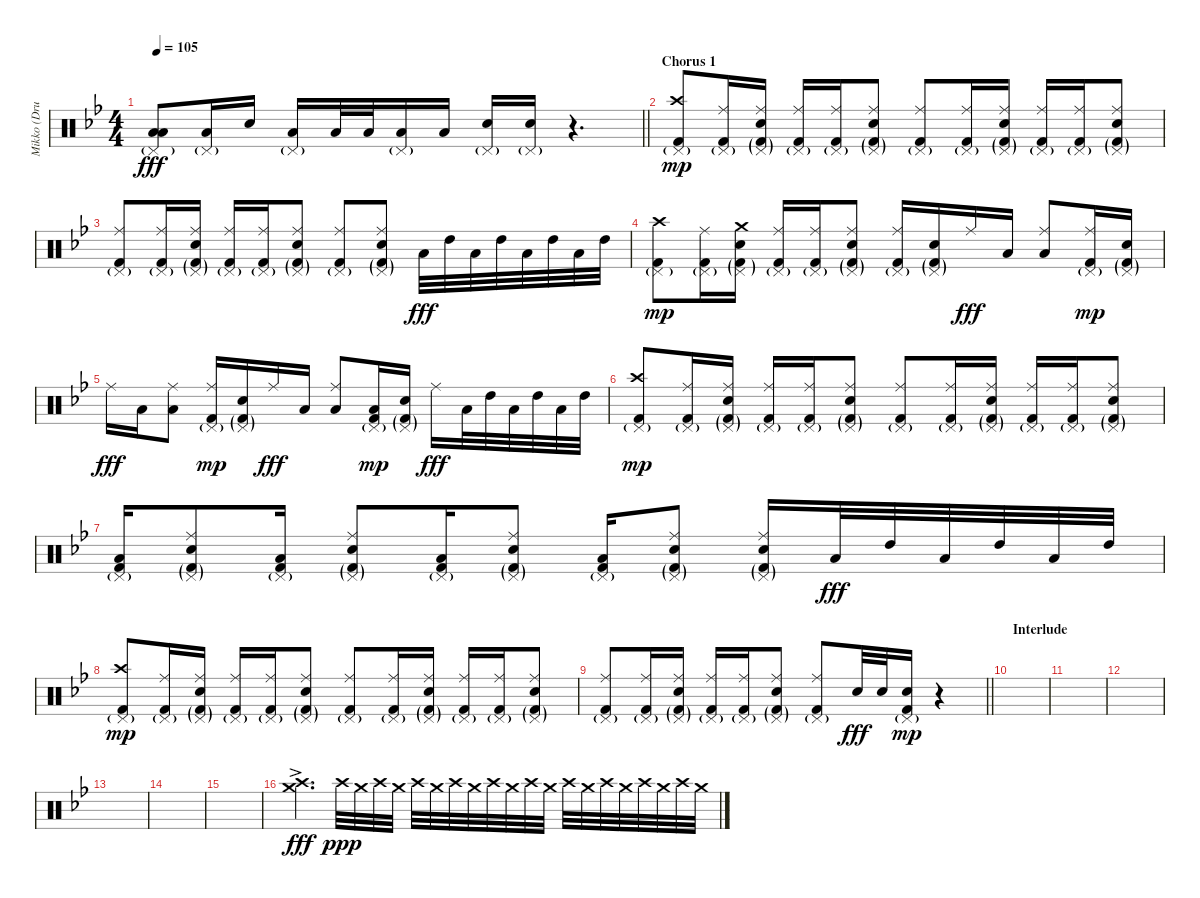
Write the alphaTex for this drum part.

\track ("Mikko (Drums)" "Mikko (Dru") {instrument percussion}
\staff {score}
\articulation defaults
\ts (4 4)
\tempo 105
\clef neutral
\barLineRight lightlight
\ks bb
("Pedal Hi-Hat (hit)"{g} "Low Floor Tom (hit)" "Low Tom (hit)").8{dy fff} ("Pedal Hi-Hat (hit)"{g} "Low Floor Tom (hit)").16 "Electric Snare (hit)".16 ("Pedal Hi-Hat (hit)"{g} "Low Floor Tom (hit)").16 "Low Floor Tom (hit)".32 "Low Floor Tom (hit)".32 ("Pedal Hi-Hat (hit)"{g} "Low Floor Tom (hit)").16 "Low Floor Tom (hit)".16 ("Pedal Hi-Hat (hit)"{g} "Electric Snare (hit)").16 ("Pedal Hi-Hat (hit)"{g} "Electric Snare (hit)").16 r.4{d} |
\section ("" "Chorus 1")
("Crash high (hit)" "Kick (hit) 2" "Pedal Hi-Hat (hit)"{g}).8{dy mp} ("Ride (middle)" "Kick (hit) 2" "Pedal Hi-Hat (hit)"{g}).16 ("Ride (middle)" "Electric Snare (hit)" "Pedal Hi-Hat (hit)"{g} "Kick (hit) 2"{g}).16 ("Ride (middle)" "Kick (hit) 2" "Pedal Hi-Hat (hit)"{g}).16 ("Ride (middle)" "Kick (hit) 2" "Pedal Hi-Hat (hit)"{g}).16 ("Ride (middle)" "Electric Snare (hit)" "Pedal Hi-Hat (hit)"{g} "Kick (hit) 2"{g}).8 ("Ride (middle)" "Kick (hit) 2" "Pedal Hi-Hat (hit)"{g}).8 ("Ride (middle)" "Kick (hit) 2" "Pedal Hi-Hat (hit)"{g}).16 ("Ride (middle)" "Electric Snare (hit)" "Pedal Hi-Hat (hit)"{g} "Kick (hit) 2"{g}).16 ("Ride (middle)" "Kick (hit) 2" "Pedal Hi-Hat (hit)"{g}).16 ("Ride (middle)" "Kick (hit) 2" "Pedal Hi-Hat (hit)"{g}).16 ("Ride (middle)" "Electric Snare (hit)" "Pedal Hi-Hat (hit)"{g} "Kick (hit) 2"{g}).8 |
("Ride (middle)" "Kick (hit) 2" "Pedal Hi-Hat (hit)"{g}).8 ("Ride (middle)" "Kick (hit) 2" "Pedal Hi-Hat (hit)"{g}).16 ("Ride (middle)" "Electric Snare (hit)" "Pedal Hi-Hat (hit)"{g} "Kick (hit) 2"{g}).16 ("Ride (middle)" "Kick (hit) 2" "Pedal Hi-Hat (hit)"{g}).16 ("Ride (middle)" "Kick (hit) 2" "Pedal Hi-Hat (hit)"{g}).16 ("Ride (middle)" "Electric Snare (hit)" "Pedal Hi-Hat (hit)"{g} "Kick (hit) 2"{g}).8 ("Ride (middle)" "Kick (hit) 2" "Pedal Hi-Hat (hit)"{g}).8 ("Ride (middle)" "Electric Snare (hit)" "Pedal Hi-Hat (hit)"{g} "Kick (hit) 2"{g}).8 "Low Tom (hit)".32{dy fff} "High Tom (hit)".32 "Low Tom (hit)".32 "High Tom (hit)".32 "Low Tom (hit)".32 "High Tom (hit)".32 "Low Tom (hit)".32 "High Tom (hit)".32 |
("Crash high (hit)" "Kick (hit) 2" "Pedal Hi-Hat (hit)"{g}).8{dy mp} ("Ride (middle)" "Kick (hit) 2" "Pedal Hi-Hat (hit)"{g}).16 ("Crash medium (hit)" "Electric Snare (hit)" "Pedal Hi-Hat (hit)"{g} "Kick (hit) 2"{g}).16 ("Ride (middle)" "Kick (hit) 2" "Pedal Hi-Hat (hit)"{g}).16 ("Ride (middle)" "Kick (hit) 2" "Pedal Hi-Hat (hit)"{g}).16 ("Ride (middle)" "Electric Snare (hit)" "Pedal Hi-Hat (hit)"{g} "Kick (hit) 2"{g}).8 ("Ride (middle)" "Kick (hit) 2" "Pedal Hi-Hat (hit)"{g}).16 ("Electric Snare (hit)" "Pedal Hi-Hat (hit)"{g} "Kick (hit) 2"{g}).16 "Ride (middle)".16{dy fff} "Low Tom (hit)".16 ("Ride (middle)" "Low Floor Tom (hit)").8 ("Ride (middle)" "Kick (hit) 2" "Pedal Hi-Hat (hit)"{g}).16{dy mp} ("Electric Snare (hit)" "Pedal Hi-Hat (hit)"{g} "Kick (hit) 2"{g}).16 |
"Ride (middle)".16{dy fff} "Low Tom (hit)".16 ("Ride (middle)" "Low Floor Tom (hit)").8 ("Ride (middle)" "Kick (hit) 2" "Pedal Hi-Hat (hit)"{g}).16{dy mp} ("Electric Snare (hit)" "Pedal Hi-Hat (hit)"{g} "Kick (hit) 2"{g}).16 "Ride (middle)".16{dy fff} "Low Tom (hit)".16 ("Ride (middle)" "Low Floor Tom (hit)").8 ("Low Tom (hit)" "Kick (hit) 2" "Pedal Hi-Hat (hit)"{g}).16{dy mp} ("Electric Snare (hit)" "Pedal Hi-Hat (hit)"{g} "Kick (hit) 2"{g}).16 "Ride (middle)".16{dy fff} "Low Tom (hit)".32 "High Tom (hit)".32 "Low Tom (hit)".32 "High Tom (hit)".32 "Low Tom (hit)".32 "High Tom (hit)".32 |
("Crash high (hit)" "Kick (hit) 2" "Pedal Hi-Hat (hit)"{g}).8{dy mp} ("Ride (middle)" "Kick (hit) 2" "Pedal Hi-Hat (hit)"{g}).16 ("Ride (middle)" "Electric Snare (hit)" "Pedal Hi-Hat (hit)"{g} "Kick (hit) 2"{g}).16 ("Ride (middle)" "Kick (hit) 2" "Pedal Hi-Hat (hit)"{g}).16 ("Ride (middle)" "Kick (hit) 2" "Pedal Hi-Hat (hit)"{g}).16 ("Ride (middle)" "Electric Snare (hit)" "Pedal Hi-Hat (hit)"{g} "Kick (hit) 2"{g}).8 ("Ride (middle)" "Kick (hit) 2" "Pedal Hi-Hat (hit)"{g}).8 ("Ride (middle)" "Kick (hit) 2" "Pedal Hi-Hat (hit)"{g}).16 ("Ride (middle)" "Electric Snare (hit)" "Pedal Hi-Hat (hit)"{g} "Kick (hit) 2"{g}).16 ("Ride (middle)" "Kick (hit) 2" "Pedal Hi-Hat (hit)"{g}).16 ("Ride (middle)" "Kick (hit) 2" "Pedal Hi-Hat (hit)"{g}).16 ("Ride (middle)" "Electric Snare (hit)" "Pedal Hi-Hat (hit)"{g} "Kick (hit) 2"{g}).8 |
("Low Tom (hit)" "Kick (hit) 2" "Pedal Hi-Hat (hit)"{g}).16 ("Ride (middle)" "Electric Snare (hit)" "Pedal Hi-Hat (hit)"{g} "Kick (hit) 2"{g}).8 ("Low Tom (hit)" "Kick (hit) 2" "Pedal Hi-Hat (hit)"{g}).16 ("Ride (middle)" "Electric Snare (hit)" "Pedal Hi-Hat (hit)"{g} "Kick (hit) 2"{g}).8 ("Low Tom (hit)" "Kick (hit) 2" "Pedal Hi-Hat (hit)"{g}).16 ("Ride (middle)" "Electric Snare (hit)" "Kick (hit) 2"{g} "Pedal Hi-Hat (hit)"{g}).8 ("Low Tom (hit)" "Kick (hit) 2" "Pedal Hi-Hat (hit)"{g}).16 ("Ride (middle)" "Electric Snare (hit)" "Kick (hit) 2"{g} "Pedal Hi-Hat (hit)"{g}).8 ("Ride (middle)" "Electric Snare (hit)" "Kick (hit) 2"{g} "Pedal Hi-Hat (hit)"{g}).16 "Low Tom (hit)".32{dy fff} "High Tom (hit)".32 "Low Tom (hit)".32 "High Tom (hit)".32 "Low Tom (hit)".32 "High Tom (hit)".32 |
("Crash high (hit)" "Kick (hit) 2" "Pedal Hi-Hat (hit)"{g}).8{dy mp} ("Ride (middle)" "Kick (hit) 2" "Pedal Hi-Hat (hit)"{g}).16 ("Ride (middle)" "Electric Snare (hit)" "Pedal Hi-Hat (hit)"{g} "Kick (hit) 2"{g}).16 ("Ride (middle)" "Kick (hit) 2" "Pedal Hi-Hat (hit)"{g}).16 ("Ride (middle)" "Kick (hit) 2" "Pedal Hi-Hat (hit)"{g}).16 ("Ride (middle)" "Electric Snare (hit)" "Pedal Hi-Hat (hit)"{g} "Kick (hit) 2"{g}).8 ("Ride (middle)" "Kick (hit) 2" "Pedal Hi-Hat (hit)"{g}).8 ("Ride (middle)" "Kick (hit) 2" "Pedal Hi-Hat (hit)"{g}).16 ("Ride (middle)" "Electric Snare (hit)" "Pedal Hi-Hat (hit)"{g} "Kick (hit) 2"{g}).16 ("Ride (middle)" "Kick (hit) 2" "Pedal Hi-Hat (hit)"{g}).16 ("Ride (middle)" "Kick (hit) 2" "Pedal Hi-Hat (hit)"{g}).16 ("Ride (middle)" "Electric Snare (hit)" "Pedal Hi-Hat (hit)"{g} "Kick (hit) 2"{g}).8 |
\barLineRight lightlight
("Ride (middle)" "Kick (hit) 2" "Pedal Hi-Hat (hit)"{g}).8 ("Ride (middle)" "Kick (hit) 2" "Pedal Hi-Hat (hit)"{g}).16 ("Ride (middle)" "Electric Snare (hit)" "Pedal Hi-Hat (hit)"{g} "Kick (hit) 2"{g}).16 ("Ride (middle)" "Kick (hit) 2" "Pedal Hi-Hat (hit)"{g}).16 ("Ride (middle)" "Kick (hit) 2" "Pedal Hi-Hat (hit)"{g}).16 ("Ride (middle)" "Electric Snare (hit)" "Pedal Hi-Hat (hit)"{g} "Kick (hit) 2"{g}).8 ("Ride (middle)" "Kick (hit) 2" "Pedal Hi-Hat (hit)"{g}).8 "Electric Snare (hit)".32{dy fff} "Electric Snare (hit)".32 ("Electric Snare (hit)" "Kick (hit) 2" "Pedal Hi-Hat (hit)"{g}).16{dy mp} r.4 |
\section ("" "Interlude")
|
|
|
|
|
|
("Crash high (hit)"{ac} "Crash medium (hit)"{ac}).4{d dy fff} "Crash high (hit)".32{dy ppp} "Crash medium (hit)".32 "Crash high (hit)".32 "Crash medium (hit)".32 "Crash high (hit)".32 "Crash medium (hit)".32 "Crash high (hit)".32 "Crash medium (hit)".32 "Crash high (hit)".32 "Crash medium (hit)".32 "Crash high (hit)".32 "Crash medium (hit)".32 "Crash high (hit)".32 "Crash medium (hit)".32 "Crash high (hit)".32 "Crash medium (hit)".32 "Crash high (hit)".32 "Crash medium (hit)".32 "Crash high (hit)".32 "Crash medium (hit)".32
